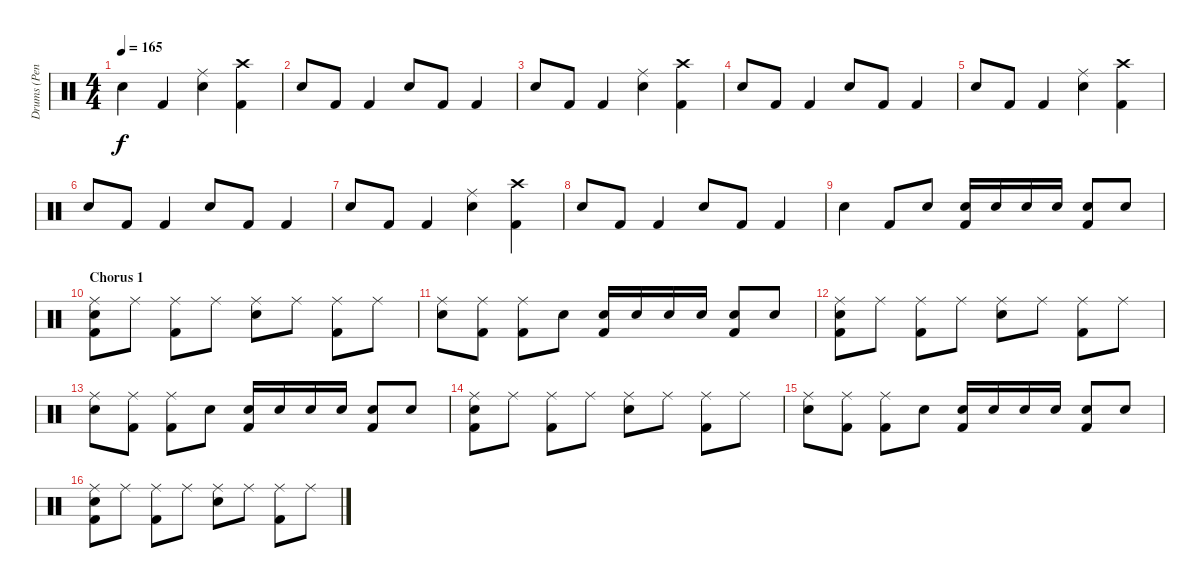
\track ("Drums (Penny Rimbaud)" "Drums (Pen") {instrument percussion}
\staff {score}
\articulation defaults
\ts (4 4)
\tempo 165
\clef neutral
\ks c "Electric Snare (hit)".4{dy f} "Kick (hit) 2".4
("Ride (middle)" "Electric Snare (hit)").4 ("Crash high (hit)" "Kick (hit) 2").4 |
"Electric Snare (hit)".8 "Kick (hit) 2".8 "Kick (hit) 2".4 "Electric Snare (hit)".8 "Kick (hit) 2".8 "Kick (hit) 2".4 |
"Electric Snare (hit)".8 "Kick (hit) 2".8 "Kick (hit) 2".4 ("Ride (middle)" "Electric Snare (hit)").4 ("Crash high (hit)" "Kick (hit) 2").4 |
"Electric Snare (hit)".8 "Kick (hit) 2".8 "Kick (hit) 2".4 "Electric Snare (hit)".8 "Kick (hit) 2".8 "Kick (hit) 2".4 |
"Electric Snare (hit)".8 "Kick (hit) 2".8 "Kick (hit) 2".4 ("Ride (middle)" "Electric Snare (hit)").4 ("Crash high (hit)" "Kick (hit) 2").4 |
"Electric Snare (hit)".8 "Kick (hit) 2".8 "Kick (hit) 2".4 "Electric Snare (hit)".8 "Kick (hit) 2".8 "Kick (hit) 2".4 |
"Electric Snare (hit)".8 "Kick (hit) 2".8 "Kick (hit) 2".4 ("Ride (middle)" "Electric Snare (hit)").4 ("Crash high (hit)" "Kick (hit) 2").4 |
"Electric Snare (hit)".8 "Kick (hit) 2".8 "Kick (hit) 2".4 "Electric Snare (hit)".8 "Kick (hit) 2".8 "Kick (hit) 2".4 |
"Electric Snare (hit)".4 "Kick (hit) 2".8 "Electric Snare (hit)".8 ("Electric Snare (hit)" "Kick (hit) 2").16 "Electric Snare (hit)".16 "Electric Snare (hit)".16 "Electric Snare (hit)".16 ("Electric Snare (hit)" "Kick (hit) 2").8 "Electric Snare (hit)".8 |
\section ("" "Chorus 1")
("Ride (middle)" "Electric Snare (hit)" "Kick (hit) 2").8 "Ride (middle)".8 ("Ride (middle)" "Kick (hit) 2").8 "Ride (middle)".8 ("Ride (middle)" "Electric Snare (hit)").8 "Ride (middle)".8 ("Ride (middle)" "Kick (hit) 2").8 "Ride (middle)".8 |
("Ride (middle)" "Electric Snare (hit)").8 ("Ride (middle)" "Kick (hit) 2").8 ("Ride (middle)" "Kick (hit) 2").8 "Electric Snare (hit)".8 ("Electric Snare (hit)" "Kick (hit) 2").16 "Electric Snare (hit)".16 "Electric Snare (hit)".16 "Electric Snare (hit)".16 ("Electric Snare (hit)" "Kick (hit) 2").8 "Electric Snare (hit)".8 |
("Ride (middle)" "Electric Snare (hit)" "Kick (hit) 2").8 "Ride (middle)".8 ("Ride (middle)" "Kick (hit) 2").8 "Ride (middle)".8 ("Ride (middle)" "Electric Snare (hit)").8 "Ride (middle)".8 ("Ride (middle)" "Kick (hit) 2").8 "Ride (middle)".8 |
("Ride (middle)" "Electric Snare (hit)").8 ("Ride (middle)" "Kick (hit) 2").8 ("Ride (middle)" "Kick (hit) 2").8 "Electric Snare (hit)".8 ("Electric Snare (hit)" "Kick (hit) 2").16 "Electric Snare (hit)".16 "Electric Snare (hit)".16 "Electric Snare (hit)".16 ("Electric Snare (hit)" "Kick (hit) 2").8 "Electric Snare (hit)".8 |
("Ride (middle)" "Electric Snare (hit)" "Kick (hit) 2").8 "Ride (middle)".8 ("Ride (middle)" "Kick (hit) 2").8 "Ride (middle)".8 ("Ride (middle)" "Electric Snare (hit)").8 "Ride (middle)".8 ("Ride (middle)" "Kick (hit) 2").8 "Ride (middle)".8 |
("Ride (middle)" "Electric Snare (hit)").8 ("Ride (middle)" "Kick (hit) 2").8 ("Ride (middle)" "Kick (hit) 2").8 "Electric Snare (hit)".8 ("Electric Snare (hit)" "Kick (hit) 2").16 "Electric Snare (hit)".16 "Electric Snare (hit)".16 "Electric Snare (hit)".16 ("Electric Snare (hit)" "Kick (hit) 2").8 "Electric Snare (hit)".8 |
("Ride (middle)" "Electric Snare (hit)" "Kick (hit) 2").8 "Ride (middle)".8 ("Ride (middle)" "Kick (hit) 2").8 "Ride (middle)".8 ("Ride (middle)" "Electric Snare (hit)").8 "Ride (middle)".8 ("Ride (middle)" "Kick (hit) 2").8 "Ride (middle)".8
